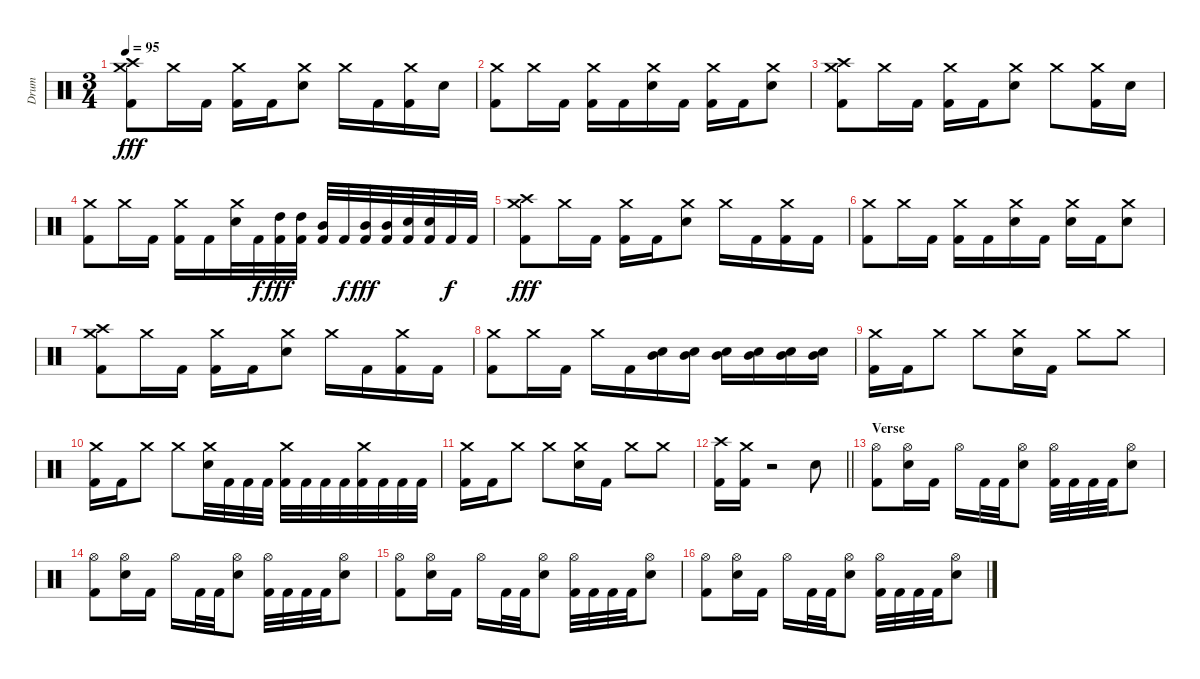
\track ("Drum" "Drum") {instrument percussion}
\staff {score}
\articulation defaults
\ts (3 4)
\tempo 95
\clef neutral
\ks c
("Crash medium (hit)" "Crash high (hit)" "Kick (hit) 2").8{dy fff} "Crash medium (hit)".16 "Kick (hit) 2".16 ("Crash medium (hit)" "Kick (hit) 2").16 "Kick (hit) 2".16 ("Crash medium (hit)" "Electric Snare (hit)").8 "Crash medium (hit)".16 "Kick (hit) 2".16 ("Crash medium (hit)" "Kick (hit) 2").16 "Electric Snare (hit)".16 |
("Crash medium (hit)" "Kick (hit) 2").8 "Crash medium (hit)".16 "Kick (hit) 2".16 ("Crash medium (hit)" "Kick (hit) 2").16 "Kick (hit) 2".16 ("Crash medium (hit)" "Electric Snare (hit)").16 "Kick (hit) 2".16 ("Crash medium (hit)" "Kick (hit) 2").16 "Kick (hit) 2".16 ("Crash medium (hit)" "Electric Snare (hit)").8 |
("Crash high (hit)" "Crash medium (hit)" "Kick (hit) 2").8 "Crash medium (hit)".16 "Kick (hit) 2".16 ("Crash medium (hit)" "Kick (hit) 2").16 "Kick (hit) 2".16 ("Crash medium (hit)" "Electric Snare (hit)").8 "Crash medium (hit)".8 ("Crash medium (hit)" "Kick (hit) 2").16 "Electric Snare (hit)".16 |
("Crash medium (hit)" "Kick (hit) 2").8 "Crash medium (hit)".16 "Kick (hit) 2".16 ("Crash medium (hit)" "Kick (hit) 2").16 "Kick (hit) 2".16 ("Crash medium (hit)" "Electric Snare (hit)").32 "Kick (hit) 2".32{dy f} ("High Tom (hit)" "Kick (hit) 2").32{dy fff} ("High Tom (hit)" "Kick (hit) 2").32 ("Mid Tom (hit)" "Kick (hit) 2").32 "Kick (hit) 2".32{dy f} ("Mid Tom (hit)" "Kick (hit) 2").32{dy fff} ("Mid Tom (hit)" "Kick (hit) 2").32 ("Electric Snare (hit)" "Kick (hit) 2").32 ("Electric Snare (hit)" "Kick (hit) 2").32 "Kick (hit) 2".32{dy f} "Kick (hit) 2".32 |
("Crash medium (hit)" "Crash high (hit)" "Kick (hit) 2").8{dy fff} "Crash medium (hit)".16 "Kick (hit) 2".16 ("Crash medium (hit)" "Kick (hit) 2").16 "Kick (hit) 2".16 ("Crash medium (hit)" "Electric Snare (hit)").8 "Crash medium (hit)".16 "Kick (hit) 2".16 ("Crash medium (hit)" "Kick (hit) 2").16 "Kick (hit) 2".16 |
("Crash medium (hit)" "Kick (hit) 2").8 "Crash medium (hit)".16 "Kick (hit) 2".16 ("Crash medium (hit)" "Kick (hit) 2").16 "Kick (hit) 2".16 ("Crash medium (hit)" "Electric Snare (hit)").16 "Kick (hit) 2".16 ("Crash medium (hit)" "Electric Snare (hit)").16 "Kick (hit) 2".16 ("Crash medium (hit)" "Electric Snare (hit)").8 |
("Crash high (hit)" "Crash medium (hit)" "Kick (hit) 2").8 "Crash medium (hit)".16 "Kick (hit) 2".16 ("Crash medium (hit)" "Kick (hit) 2").16 "Kick (hit) 2".16 ("Crash medium (hit)" "Electric Snare (hit)").8 "Crash medium (hit)".16 "Kick (hit) 2".16 ("Crash medium (hit)" "Kick (hit) 2").16 "Kick (hit) 2".16 |
("Crash medium (hit)" "Kick (hit) 2").8 "Crash medium (hit)".16 "Kick (hit) 2".16 "Crash medium (hit)".16 "Kick (hit) 2".16 ("Electric Snare (hit)" "Mid Tom (hit)").16 ("Electric Snare (hit)" "Mid Tom (hit)").16 ("Electric Snare (hit)" "Mid Tom (hit)").16 ("Electric Snare (hit)" "Mid Tom (hit)").16 ("Electric Snare (hit)" "Mid Tom (hit)").16 ("Electric Snare (hit)" "Mid Tom (hit)").16 |
("Crash medium (hit)" "Kick (hit) 2").16 "Kick (hit) 2".16 "Crash medium (hit)".8 "Crash medium (hit)".8 ("Crash medium (hit)" "Electric Snare (hit)").16 "Kick (hit) 2".16 "Crash medium (hit)".8 "Crash medium (hit)".8 |
("Crash medium (hit)" "Kick (hit) 2").16 "Kick (hit) 2".16 "Crash medium (hit)".8 "Crash medium (hit)".8 ("Crash medium (hit)" "Electric Snare (hit)").32 "Kick (hit) 2".32 "Kick (hit) 2".32 "Kick (hit) 2".32 ("Crash medium (hit)" "Kick (hit) 2").32 "Kick (hit) 2".32 "Kick (hit) 2".32 "Kick (hit) 2".32 ("Crash medium (hit)" "Kick (hit) 2").32 "Kick (hit) 2".32 "Kick (hit) 2".32 "Kick (hit) 2".32 |
("Crash medium (hit)" "Kick (hit) 2").16 "Kick (hit) 2".16 "Crash medium (hit)".8 "Crash medium (hit)".8 ("Crash medium (hit)" "Electric Snare (hit)").16 "Kick (hit) 2".16 "Crash medium (hit)".8 "Crash medium (hit)".8 |
\barLineRight lightlight
("Crash high (hit)" "Kick (hit) 2").16 ("Crash medium (hit)" "Kick (hit) 2").16 r.2 "Electric Snare (hit)".8 |
\section ("" "Verse")
("Hi-Hat (open)" "Kick (hit) 2").8 ("Hi-Hat (open)" "Electric Snare (hit)").16 "Kick (hit) 2".16 "Hi-Hat (open)".16 "Kick (hit) 2".32 "Kick (hit) 2".32 ("Hi-Hat (open)" "Electric Snare (hit)").8 ("Hi-Hat (open)" "Kick (hit) 2").32 "Kick (hit) 2".32 "Kick (hit) 2".32 "Kick (hit) 2".32 ("Hi-Hat (open)" "Electric Snare (hit)").8 |
("Hi-Hat (open)" "Kick (hit) 2").8 ("Hi-Hat (open)" "Electric Snare (hit)").16 "Kick (hit) 2".16 "Hi-Hat (open)".16 "Kick (hit) 2".32 "Kick (hit) 2".32 ("Hi-Hat (open)" "Electric Snare (hit)").8 ("Hi-Hat (open)" "Kick (hit) 2").32 "Kick (hit) 2".32 "Kick (hit) 2".32 "Kick (hit) 2".32 ("Hi-Hat (open)" "Electric Snare (hit)").8 |
("Hi-Hat (open)" "Kick (hit) 2").8 ("Hi-Hat (open)" "Electric Snare (hit)").16 "Kick (hit) 2".16 "Hi-Hat (open)".16 "Kick (hit) 2".32 "Kick (hit) 2".32 ("Hi-Hat (open)" "Electric Snare (hit)").8 ("Hi-Hat (open)" "Kick (hit) 2").32 "Kick (hit) 2".32 "Kick (hit) 2".32 "Kick (hit) 2".32 ("Hi-Hat (open)" "Electric Snare (hit)").8 |
("Hi-Hat (open)" "Kick (hit) 2").8 ("Hi-Hat (open)" "Electric Snare (hit)").16 "Kick (hit) 2".16 "Hi-Hat (open)".16 "Kick (hit) 2".32 "Kick (hit) 2".32 ("Hi-Hat (open)" "Electric Snare (hit)").8 ("Hi-Hat (open)" "Kick (hit) 2").32 "Kick (hit) 2".32 "Kick (hit) 2".32 "Kick (hit) 2".32 ("Hi-Hat (open)" "Electric Snare (hit)").8
